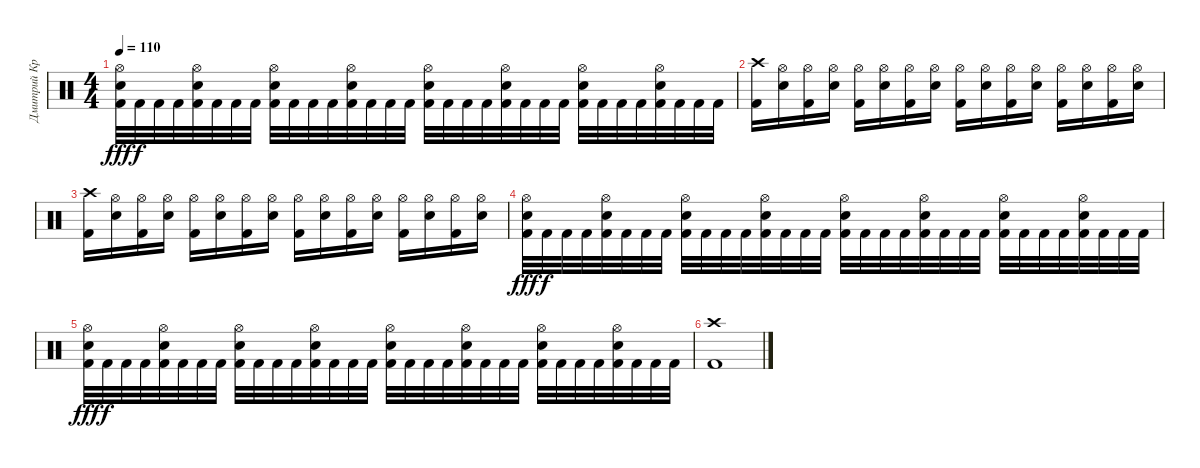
\track ("Дмитрий Кривенков" "Дмитрий Кр") {instrument percussion}
\staff {score}
\articulation defaults
\ts (4 4)
\tempo 110
\clef neutral
\ks c
("Hi-Hat (open)" "Electric Snare (hit)" "Kick (hit) 2").32{dy fff} "Kick (hit) 2".32{dy f} "Kick (hit) 2".32 "Kick (hit) 2".32 ("Hi-Hat (open)" "Electric Snare (hit)" "Kick (hit) 2").32 "Kick (hit) 2".32 "Kick (hit) 2".32 "Kick (hit) 2".32 ("Hi-Hat (open)" "Electric Snare (hit)" "Kick (hit) 2").32 "Kick (hit) 2".32 "Kick (hit) 2".32 "Kick (hit) 2".32 ("Hi-Hat (open)" "Electric Snare (hit)" "Kick (hit) 2").32 "Kick (hit) 2".32 "Kick (hit) 2".32 "Kick (hit) 2".32 ("Hi-Hat (open)" "Electric Snare (hit)" "Kick (hit) 2").32 "Kick (hit) 2".32 "Kick (hit) 2".32 "Kick (hit) 2".32 ("Hi-Hat (open)" "Electric Snare (hit)" "Kick (hit) 2").32 "Kick (hit) 2".32 "Kick (hit) 2".32 "Kick (hit) 2".32 ("Hi-Hat (open)" "Electric Snare (hit)" "Kick (hit) 2").32 "Kick (hit) 2".32 "Kick (hit) 2".32 "Kick (hit) 2".32 ("Hi-Hat (open)" "Electric Snare (hit)" "Kick (hit) 2").32 "Kick (hit) 2".32 "Kick (hit) 2".32 "Kick (hit) 2".32 |
("Crash high (hit)" "Kick (hit) 2").16 ("Hi-Hat (open)" "Electric Snare (hit)").16 ("Hi-Hat (open)" "Kick (hit) 2").16 ("Hi-Hat (open)" "Electric Snare (hit)").16 ("Hi-Hat (open)" "Kick (hit) 2").16 ("Hi-Hat (open)" "Electric Snare (hit)").16 ("Hi-Hat (open)" "Kick (hit) 2").16 ("Hi-Hat (open)" "Electric Snare (hit)").16 ("Hi-Hat (open)" "Kick (hit) 2").16 ("Hi-Hat (open)" "Electric Snare (hit)").16 ("Hi-Hat (open)" "Kick (hit) 2").16 ("Hi-Hat (open)" "Electric Snare (hit)").16 ("Hi-Hat (open)" "Kick (hit) 2").16 ("Hi-Hat (open)" "Electric Snare (hit)").16 ("Hi-Hat (open)" "Kick (hit) 2").16 ("Hi-Hat (open)" "Electric Snare (hit)").16 |
("Crash high (hit)" "Kick (hit) 2").16 ("Hi-Hat (open)" "Electric Snare (hit)").16 ("Hi-Hat (open)" "Kick (hit) 2").16 ("Hi-Hat (open)" "Electric Snare (hit)").16 ("Hi-Hat (open)" "Kick (hit) 2").16 ("Hi-Hat (open)" "Electric Snare (hit)").16 ("Hi-Hat (open)" "Kick (hit) 2").16 ("Hi-Hat (open)" "Electric Snare (hit)").16 ("Hi-Hat (open)" "Kick (hit) 2").16 ("Hi-Hat (open)" "Electric Snare (hit)").16 ("Hi-Hat (open)" "Kick (hit) 2").16 ("Hi-Hat (open)" "Electric Snare (hit)").16 ("Hi-Hat (open)" "Kick (hit) 2").16 ("Hi-Hat (open)" "Electric Snare (hit)").16 ("Hi-Hat (open)" "Kick (hit) 2").16 ("Hi-Hat (open)" "Electric Snare (hit)").16 |
("Hi-Hat (open)" "Electric Snare (hit)" "Kick (hit) 2").32{dy fff} "Kick (hit) 2".32{dy f} "Kick (hit) 2".32 "Kick (hit) 2".32 ("Hi-Hat (open)" "Electric Snare (hit)" "Kick (hit) 2").32 "Kick (hit) 2".32 "Kick (hit) 2".32 "Kick (hit) 2".32 ("Hi-Hat (open)" "Electric Snare (hit)" "Kick (hit) 2").32 "Kick (hit) 2".32 "Kick (hit) 2".32 "Kick (hit) 2".32 ("Hi-Hat (open)" "Electric Snare (hit)" "Kick (hit) 2").32 "Kick (hit) 2".32 "Kick (hit) 2".32 "Kick (hit) 2".32 ("Hi-Hat (open)" "Electric Snare (hit)" "Kick (hit) 2").32 "Kick (hit) 2".32 "Kick (hit) 2".32 "Kick (hit) 2".32 ("Hi-Hat (open)" "Electric Snare (hit)" "Kick (hit) 2").32 "Kick (hit) 2".32 "Kick (hit) 2".32 "Kick (hit) 2".32 ("Hi-Hat (open)" "Electric Snare (hit)" "Kick (hit) 2").32 "Kick (hit) 2".32 "Kick (hit) 2".32 "Kick (hit) 2".32 ("Hi-Hat (open)" "Electric Snare (hit)" "Kick (hit) 2").32 "Kick (hit) 2".32 "Kick (hit) 2".32 "Kick (hit) 2".32 |
("Hi-Hat (open)" "Electric Snare (hit)" "Kick (hit) 2").32{dy fff} "Kick (hit) 2".32{dy f} "Kick (hit) 2".32 "Kick (hit) 2".32 ("Hi-Hat (open)" "Electric Snare (hit)" "Kick (hit) 2").32 "Kick (hit) 2".32 "Kick (hit) 2".32 "Kick (hit) 2".32 ("Hi-Hat (open)" "Electric Snare (hit)" "Kick (hit) 2").32 "Kick (hit) 2".32 "Kick (hit) 2".32 "Kick (hit) 2".32 ("Hi-Hat (open)" "Electric Snare (hit)" "Kick (hit) 2").32 "Kick (hit) 2".32 "Kick (hit) 2".32 "Kick (hit) 2".32 ("Hi-Hat (open)" "Electric Snare (hit)" "Kick (hit) 2").32 "Kick (hit) 2".32 "Kick (hit) 2".32 "Kick (hit) 2".32 ("Hi-Hat (open)" "Electric Snare (hit)" "Kick (hit) 2").32 "Kick (hit) 2".32 "Kick (hit) 2".32 "Kick (hit) 2".32 ("Hi-Hat (open)" "Electric Snare (hit)" "Kick (hit) 2").32 "Kick (hit) 2".32 "Kick (hit) 2".32 "Kick (hit) 2".32 ("Hi-Hat (open)" "Electric Snare (hit)" "Kick (hit) 2").32 "Kick (hit) 2".32 "Kick (hit) 2".32 "Kick (hit) 2".32 |
("Crash high (hit)" "Kick (hit) 2").1{volume 0}
